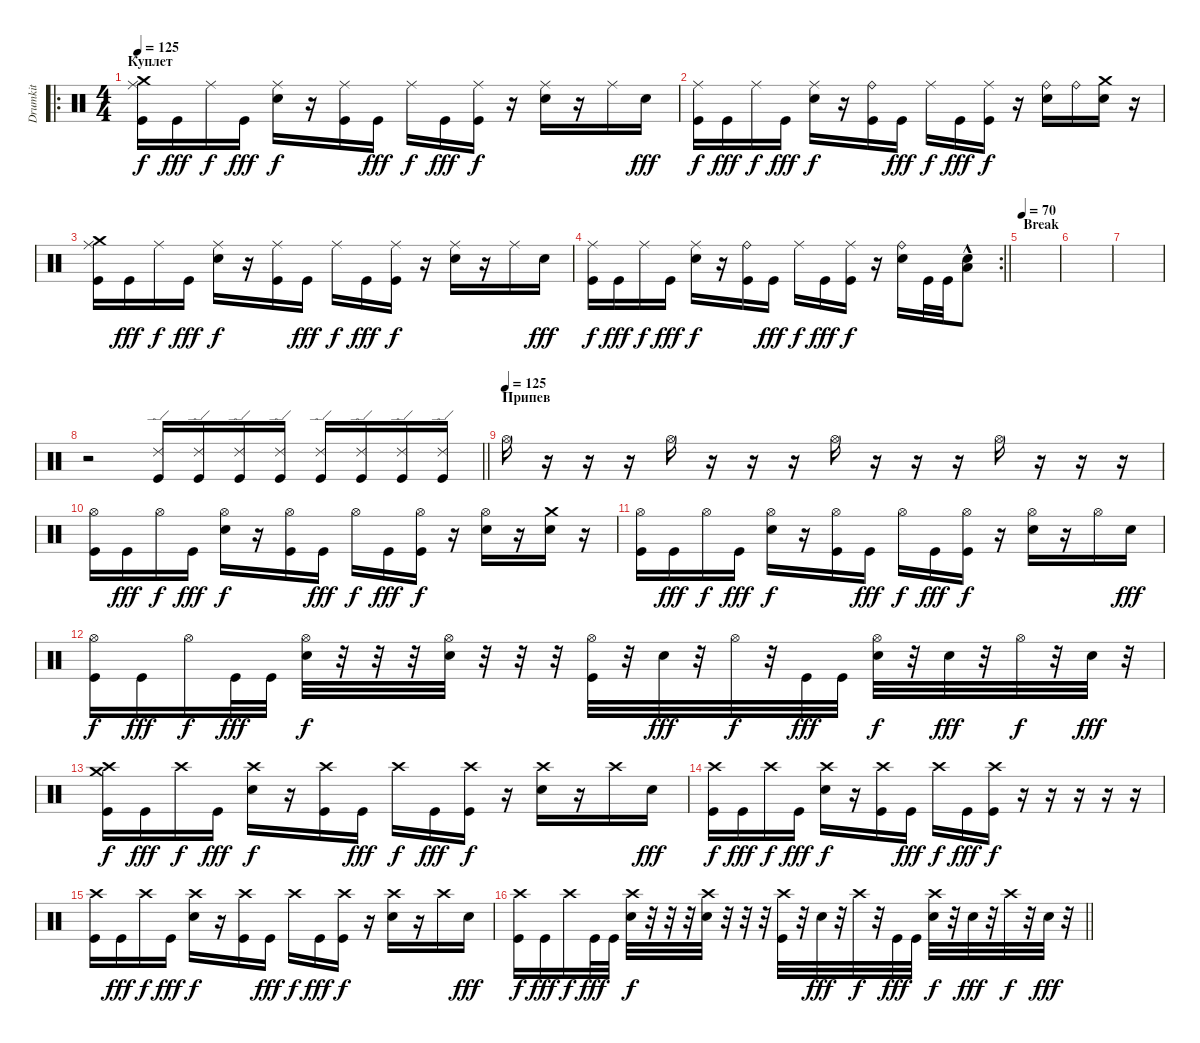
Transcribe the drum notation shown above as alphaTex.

\track ("Drumkit" "Drumkit") {instrument percussion}
\staff {score}
\articulation defaults
\ro
\ts (4 4)
\section ("" "Куплет")
\tempo 125
\clef neutral
\ks c
("Ride (middle)" "Crash medium (hit)" "Kick (hit)").16{dy f} "Kick (hit)".16{dy fff} "Ride (middle)".16{dy f} "Kick (hit)".16{dy fff} ("Ride (middle)" "Snare (hit) 2").16{dy f} r.16 ("Ride (middle)" "Kick (hit)").16 "Kick (hit)".16{dy fff} "Ride (middle)".16{dy f} "Kick (hit)".16{dy fff} ("Ride (middle)" "Kick (hit)").16{dy f} r.16 ("Ride (middle)" "Snare (hit) 2").16 r.16 "Ride (middle)".16 "Snare (hit) 2".16{dy fff} |
("Ride (middle)" "Kick (hit)").16{dy f} "Kick (hit)".16{dy fff} "Ride (middle)".16{dy f} "Kick (hit)".16{dy fff} ("Ride (middle)" "Snare (hit) 2").16{dy f} r.16 ("Ride (bell)" "Kick (hit)").16 "Kick (hit)".16{dy fff} "Ride (middle)".16{dy f} "Kick (hit)".16{dy fff} ("Ride (middle)" "Kick (hit)").16{dy f} r.16 ("Ride (bell)" "Snare (hit) 2").16 "Ride (bell)".16 ("Crash medium (hit)" "Snare (hit) 2").16 r.16 |
("Ride (middle)" "Crash medium (hit)" "Kick (hit)").16 "Kick (hit)".16{dy fff} "Ride (middle)".16{dy f} "Kick (hit)".16{dy fff} ("Ride (middle)" "Snare (hit) 2").16{dy f} r.16 ("Ride (middle)" "Kick (hit)").16 "Kick (hit)".16{dy fff} "Ride (middle)".16{dy f} "Kick (hit)".16{dy fff} ("Ride (middle)" "Kick (hit)").16{dy f} r.16 ("Ride (middle)" "Snare (hit) 2").16 r.16 "Ride (middle)".16 "Snare (hit) 2".16{dy fff} |
\rc 2
\barLineRight lightlight
("Ride (middle)" "Kick (hit)").16{dy f} "Kick (hit)".16{dy fff} "Ride (middle)".16{dy f} "Kick (hit)".16{dy fff} ("Ride (middle)" "Snare (hit) 2").16{dy f} r.16 ("Ride (bell)" "Kick (hit)").16 "Kick (hit)".16{dy fff} "Ride (middle)".16{dy f} "Kick (hit)".16{dy fff} ("Ride (middle)" "Kick (hit)").16{dy f} r.16 ("Ride (bell)" "Snare (hit) 2").16 "Kick (hit)".32 "Kick (hit)".32 ("Snare (hit) 2"{hac} "Low Floor Tom (hit)"{hac}).8 |
\section ("" "Break")
\tempo 70
|
|
|
\barLineRight lightlight
r.2 ("Kick (hit)" "Ride (edge) 2").16 ("Kick (hit)" "Ride (edge) 2").16 ("Kick (hit)" "Ride (edge) 2").16 ("Kick (hit)" "Ride (edge) 2").16 ("Kick (hit)" "Ride (edge) 2").16 ("Kick (hit)" "Ride (edge) 2").16 ("Kick (hit)" "Ride (edge) 2").16 ("Kick (hit)" "Ride (edge) 2").16 |
\section ("" "Припев")
\tempo (125)
"Hi-Hat (open)".16 r.16 r.16 r.16 "Hi-Hat (open)".16 r.16 r.16 r.16 "Hi-Hat (open)".16 r.16 r.16 r.16 "Hi-Hat (open)".16 r.16 r.16 r.16 |
("Hi-Hat (open)" "Kick (hit)").16 "Kick (hit)".16{dy fff} "Hi-Hat (open)".16{dy f} "Kick (hit)".16{dy fff} ("Hi-Hat (open)" "Snare (hit) 2").16{dy f} r.16 ("Hi-Hat (open)" "Kick (hit)").16 "Kick (hit)".16{dy fff} "Hi-Hat (open)".16{dy f} "Kick (hit)".16{dy fff} ("Hi-Hat (open)" "Kick (hit)").16{dy f} r.16 ("Hi-Hat (open)" "Snare (hit) 2").16 r.16 ("Crash medium (hit)" "Snare (hit) 2").16 r.16 |
("Hi-Hat (open)" "Kick (hit)").16 "Kick (hit)".16{dy fff} "Hi-Hat (open)".16{dy f} "Kick (hit)".16{dy fff} ("Hi-Hat (open)" "Snare (hit) 2").16{dy f} r.16 ("Hi-Hat (open)" "Kick (hit)").16 "Kick (hit)".16{dy fff} "Hi-Hat (open)".16{dy f} "Kick (hit)".16{dy fff} ("Hi-Hat (open)" "Kick (hit)").16{dy f} r.16 ("Hi-Hat (open)" "Snare (hit) 2").16 r.16 "Hi-Hat (open)".16 "Snare (hit) 2".16{dy fff} |
("Hi-Hat (open)" "Kick (hit)").16{dy f} "Kick (hit)".16{dy fff} "Hi-Hat (open)".16{dy f} "Kick (hit)".32{dy fff} "Kick (hit)".32 ("Hi-Hat (open)" "Snare (hit) 2").32{dy f} r.32 r.32 r.32 ("Hi-Hat (open)" "Snare (hit) 2").32 r.32 r.32 r.32 ("Hi-Hat (open)" "Kick (hit)").32 r.32 "Snare (hit) 2".32{dy fff} r.32 "Hi-Hat (open)".32{dy f} r.32 "Kick (hit)".32{dy fff} "Kick (hit)".32 ("Hi-Hat (open)" "Snare (hit) 2").32{dy f} r.32 "Snare (hit) 2".32{dy fff} r.32 "Hi-Hat (open)".32{dy f} r.32 "Snare (hit) 2".32{dy fff} r.32 |
("Crash high (hit)" "Crash medium (hit)" "Kick (hit)").16{dy f} "Kick (hit)".16{dy fff} "Crash high (hit)".16{dy f} "Kick (hit)".16{dy fff} ("Crash high (hit)" "Snare (hit) 2").16{dy f} r.16 ("Crash high (hit)" "Kick (hit)").16 "Kick (hit)".16{dy fff} "Crash high (hit)".16{dy f} "Kick (hit)".16{dy fff} ("Crash high (hit)" "Kick (hit)").16{dy f} r.16 ("Crash high (hit)" "Snare (hit) 2").16 r.16 "Crash high (hit)".16 "Snare (hit) 2".16{dy fff} |
("Crash high (hit)" "Kick (hit)").16{dy f} "Kick (hit)".16{dy fff} "Crash high (hit)".16{dy f} "Kick (hit)".16{dy fff} ("Crash high (hit)" "Snare (hit) 2").16{dy f} r.16 ("Crash high (hit)" "Kick (hit)").16 "Kick (hit)".16{dy fff} "Crash high (hit)".16{dy f} "Kick (hit)".16{dy fff} ("Crash high (hit)" "Kick (hit)").16{dy f} r.16 r.16 r.16 r.16 r.16 |
("Crash high (hit)" "Kick (hit)").16 "Kick (hit)".16{dy fff} "Crash high (hit)".16{dy f} "Kick (hit)".16{dy fff} ("Crash high (hit)" "Snare (hit) 2").16{dy f} r.16 ("Crash high (hit)" "Kick (hit)").16 "Kick (hit)".16{dy fff} "Crash high (hit)".16{dy f} "Kick (hit)".16{dy fff} ("Crash high (hit)" "Kick (hit)").16{dy f} r.16 ("Crash high (hit)" "Snare (hit) 2").16 r.16 "Crash high (hit)".16 "Snare (hit) 2".16{dy fff} |
\barLineRight lightlight
("Crash high (hit)" "Kick (hit)").16{dy f} "Kick (hit)".16{dy fff} "Crash high (hit)".16{dy f} "Kick (hit)".32{dy fff} "Kick (hit)".32 ("Crash high (hit)" "Snare (hit) 2").32{dy f} r.32 r.32 r.32 ("Crash high (hit)" "Snare (hit) 2").32 r.32 r.32 r.32 ("Crash high (hit)" "Kick (hit)").32 r.32 "Snare (hit) 2".32{dy fff} r.32 "Crash high (hit)".32{dy f} r.32 "Kick (hit)".32{dy fff} "Kick (hit)".32 ("Crash high (hit)" "Snare (hit) 2").32{dy f} r.32 "Snare (hit) 2".32{dy fff} r.32 "Crash high (hit)".32{dy f} r.32 "Snare (hit) 2".32{dy fff} r.32
